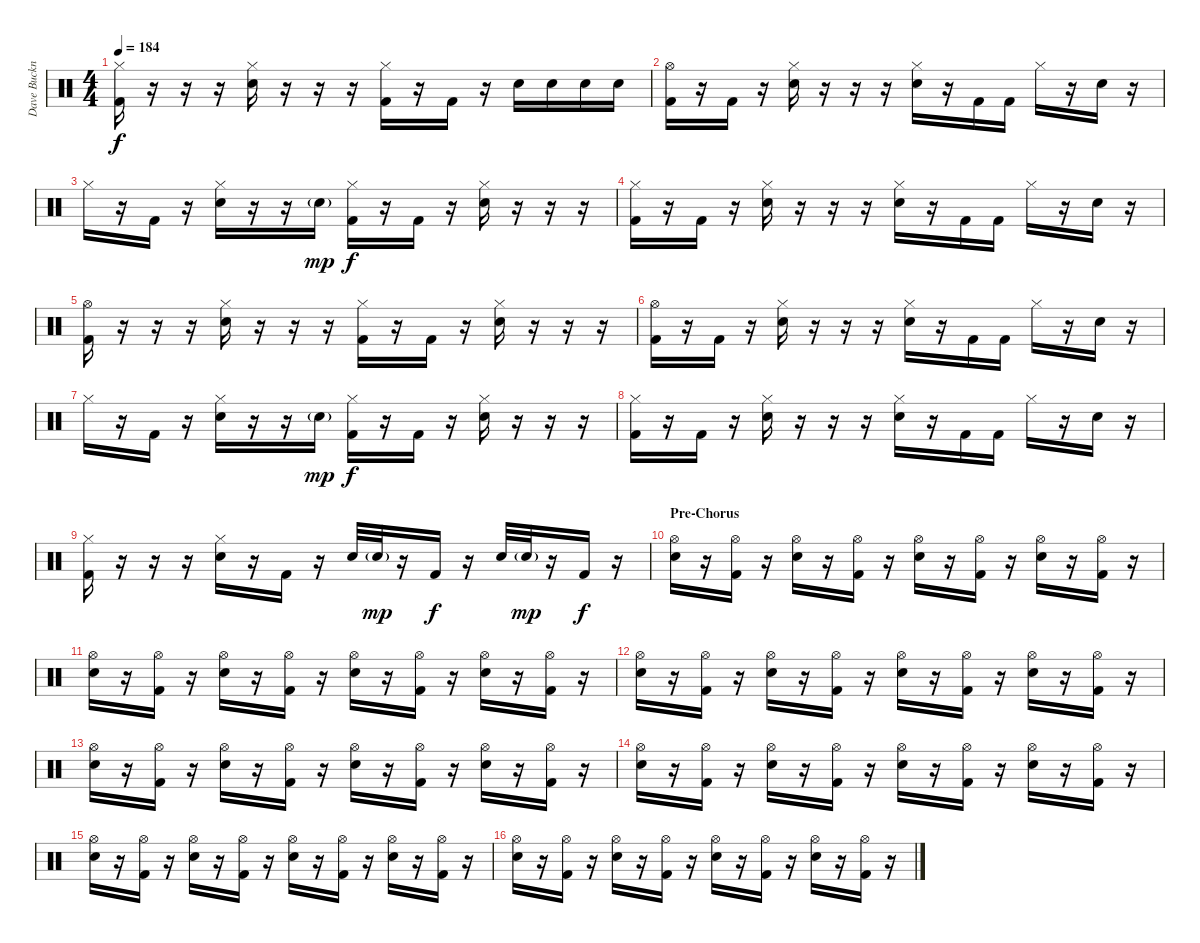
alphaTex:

\track ("Dave Buckner" "Dave Buckn") {instrument percussion}
\staff {score}
\articulation defaults
\ts (4 4)
\tempo 184
\clef neutral
\ks c
("Hi-Hat (closed)" "Kick (hit) 2").16{dy f} r.16 r.16 r.16 ("Hi-Hat (closed)" "Snare (hit) 2").16 r.16 r.16 r.16 ("Hi-Hat (closed)" "Kick (hit) 2").16 r.16 "Kick (hit) 2".16 r.16 "Snare (hit) 2".16 "Snare (hit) 2".16 "Snare (hit) 2".16 "Snare (hit) 2".16 |
("Hi-Hat (open)" "Kick (hit) 2").16 r.16 "Kick (hit) 2".16 r.16 ("Hi-Hat (closed)" "Snare (hit) 2").16 r.16 r.16 r.16 ("Hi-Hat (closed)" "Snare (hit) 2").16 r.16 "Kick (hit) 2".16 "Kick (hit) 2".16 "Hi-Hat (closed)".16 r.16 "Snare (hit) 2".16 r.16 |
"Hi-Hat (closed)".16 r.16 "Kick (hit) 2".16 r.16 ("Hi-Hat (closed)" "Snare (hit) 2").16 r.16 r.16 "Snare (hit) 2"{g}.16{dy mp} ("Hi-Hat (closed)" "Kick (hit) 2").16{dy f} r.16 "Kick (hit) 2".16 r.16 ("Hi-Hat (closed)" "Snare (hit) 2").16 r.16 r.16 r.16 |
("Hi-Hat (closed)" "Kick (hit) 2").16 r.16 "Kick (hit) 2".16 r.16 ("Hi-Hat (closed)" "Snare (hit) 2").16 r.16 r.16 r.16 ("Hi-Hat (closed)" "Snare (hit) 2").16 r.16 "Kick (hit) 2".16 "Kick (hit) 2".16 "Hi-Hat (closed)".16 r.16 "Snare (hit) 2".16 r.16 |
("Hi-Hat (open)" "Kick (hit) 2").16 r.16 r.16 r.16 ("Hi-Hat (closed)" "Snare (hit) 2").16 r.16 r.16 r.16 ("Hi-Hat (closed)" "Kick (hit) 2").16 r.16 "Kick (hit) 2".16 r.16 ("Hi-Hat (closed)" "Snare (hit) 2").16 r.16 r.16 r.16 |
("Hi-Hat (open)" "Kick (hit) 2").16 r.16 "Kick (hit) 2".16 r.16 ("Hi-Hat (closed)" "Snare (hit) 2").16 r.16 r.16 r.16 ("Hi-Hat (closed)" "Snare (hit) 2").16 r.16 "Kick (hit) 2".16 "Kick (hit) 2".16 "Hi-Hat (closed)".16 r.16 "Snare (hit) 2".16 r.16 |
"Hi-Hat (closed)".16 r.16 "Kick (hit) 2".16 r.16 ("Hi-Hat (closed)" "Snare (hit) 2").16 r.16 r.16 "Snare (hit) 2"{g}.16{dy mp} ("Hi-Hat (closed)" "Kick (hit) 2").16{dy f} r.16 "Kick (hit) 2".16 r.16 ("Hi-Hat (closed)" "Snare (hit) 2").16 r.16 r.16 r.16 |
("Hi-Hat (closed)" "Kick (hit) 2").16 r.16 "Kick (hit) 2".16 r.16 ("Hi-Hat (closed)" "Snare (hit) 2").16 r.16 r.16 r.16 ("Hi-Hat (closed)" "Snare (hit) 2").16 r.16 "Kick (hit) 2".16 "Kick (hit) 2".16 "Hi-Hat (closed)".16 r.16 "Snare (hit) 2".16 r.16 |
("Hi-Hat (closed)" "Kick (hit) 2").16 r.16 r.16 r.16 ("Hi-Hat (closed)" "Snare (hit) 2").16 r.16 "Kick (hit) 2".16 r.16 "Snare (hit) 2".32 "Snare (hit) 2"{g}.32{dy mp} r.16 "Kick (hit) 2".16{dy f} r.16 "Snare (hit) 2".32 "Snare (hit) 2"{g}.32{dy mp} r.16 "Kick (hit) 2".16{dy f} r.16 |
\section ("" "Pre-Chorus")
("Hi-Hat (open)" "Snare (hit) 2").16 r.16 ("Hi-Hat (open)" "Kick (hit) 2").16 r.16 ("Hi-Hat (open)" "Snare (hit) 2").16 r.16 ("Hi-Hat (open)" "Kick (hit) 2").16 r.16 ("Hi-Hat (open)" "Snare (hit) 2").16 r.16 ("Hi-Hat (open)" "Kick (hit) 2").16 r.16 ("Hi-Hat (open)" "Snare (hit) 2").16 r.16 ("Hi-Hat (open)" "Kick (hit) 2").16 r.16 |
("Hi-Hat (open)" "Snare (hit) 2").16 r.16 ("Hi-Hat (open)" "Kick (hit) 2").16 r.16 ("Hi-Hat (open)" "Snare (hit) 2").16 r.16 ("Hi-Hat (open)" "Kick (hit) 2").16 r.16 ("Hi-Hat (open)" "Snare (hit) 2").16 r.16 ("Hi-Hat (open)" "Kick (hit) 2").16 r.16 ("Hi-Hat (open)" "Snare (hit) 2").16 r.16 ("Hi-Hat (open)" "Kick (hit) 2").16 r.16 |
("Hi-Hat (open)" "Snare (hit) 2").16 r.16 ("Hi-Hat (open)" "Kick (hit) 2").16 r.16 ("Hi-Hat (open)" "Snare (hit) 2").16 r.16 ("Hi-Hat (open)" "Kick (hit) 2").16 r.16 ("Hi-Hat (open)" "Snare (hit) 2").16 r.16 ("Hi-Hat (open)" "Kick (hit) 2").16 r.16 ("Hi-Hat (open)" "Snare (hit) 2").16 r.16 ("Hi-Hat (open)" "Kick (hit) 2").16 r.16 |
("Hi-Hat (open)" "Snare (hit) 2").16 r.16 ("Hi-Hat (open)" "Kick (hit) 2").16 r.16 ("Hi-Hat (open)" "Snare (hit) 2").16 r.16 ("Hi-Hat (open)" "Kick (hit) 2").16 r.16 ("Hi-Hat (open)" "Snare (hit) 2").16 r.16 ("Hi-Hat (open)" "Kick (hit) 2").16 r.16 ("Hi-Hat (open)" "Snare (hit) 2").16 r.16 ("Hi-Hat (open)" "Kick (hit) 2").16 r.16 |
("Hi-Hat (open)" "Snare (hit) 2").16 r.16 ("Hi-Hat (open)" "Kick (hit) 2").16 r.16 ("Hi-Hat (open)" "Snare (hit) 2").16 r.16 ("Hi-Hat (open)" "Kick (hit) 2").16 r.16 ("Hi-Hat (open)" "Snare (hit) 2").16 r.16 ("Hi-Hat (open)" "Kick (hit) 2").16 r.16 ("Hi-Hat (open)" "Snare (hit) 2").16 r.16 ("Hi-Hat (open)" "Kick (hit) 2").16 r.16 |
("Hi-Hat (open)" "Snare (hit) 2").16 r.16 ("Hi-Hat (open)" "Kick (hit) 2").16 r.16 ("Hi-Hat (open)" "Snare (hit) 2").16 r.16 ("Hi-Hat (open)" "Kick (hit) 2").16 r.16 ("Hi-Hat (open)" "Snare (hit) 2").16 r.16 ("Hi-Hat (open)" "Kick (hit) 2").16 r.16 ("Hi-Hat (open)" "Snare (hit) 2").16 r.16 ("Hi-Hat (open)" "Kick (hit) 2").16 r.16 |
("Hi-Hat (open)" "Snare (hit) 2").16 r.16 ("Hi-Hat (open)" "Kick (hit) 2").16 r.16 ("Hi-Hat (open)" "Snare (hit) 2").16 r.16 ("Hi-Hat (open)" "Kick (hit) 2").16 r.16 ("Hi-Hat (open)" "Snare (hit) 2").16 r.16 ("Hi-Hat (open)" "Kick (hit) 2").16 r.16 ("Hi-Hat (open)" "Snare (hit) 2").16 r.16 ("Hi-Hat (open)" "Kick (hit) 2").16 r.16
